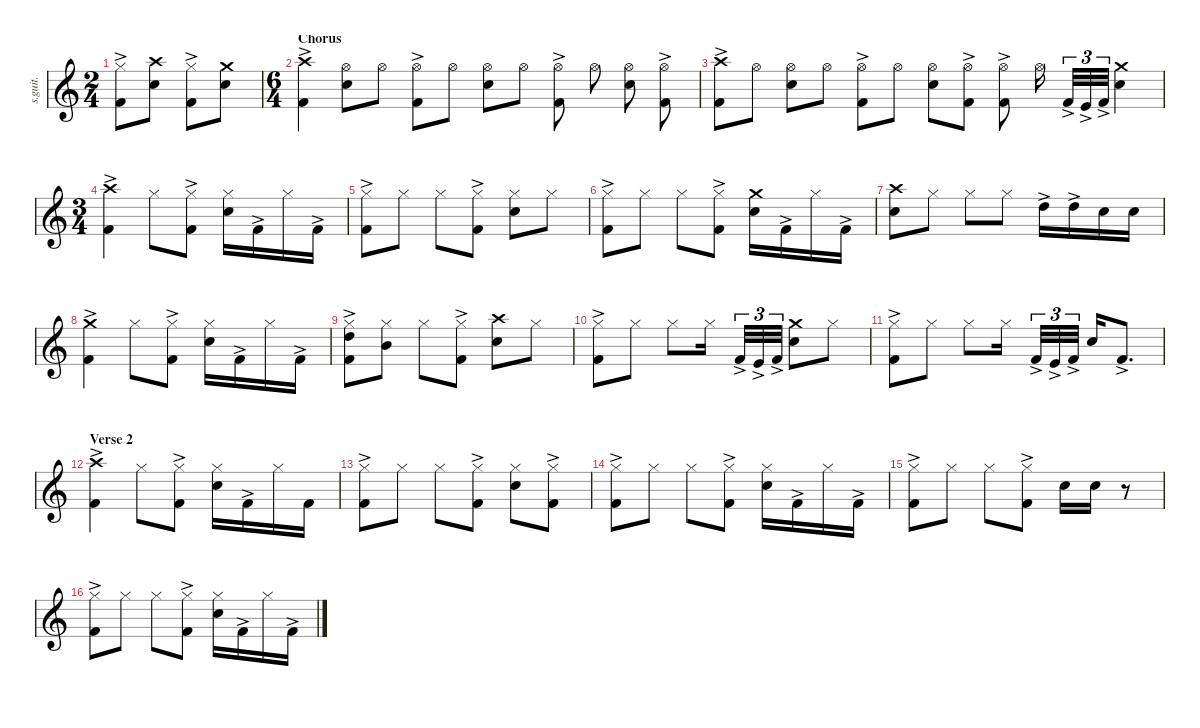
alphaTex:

\defaultSystemsLayout 4
\hideDynamics
\bracketExtendMode nobrackets
\track ("Lars Ulrich - Drums" "s.guit.") {instrument percussion}
\staff {score}
\articulation defaults
\ts (2 4)
\beaming (8 2 2 2 2)
\tempo (103 hide)
\clef g2
\ks c
("Hi-Hat (closed)" "Kick (hit) 2"{ac}).8{lyrics (0 "") lyrics (1 "") lyrics (2 "") lyrics (3 "") lyrics (4 "") dy f} ("Crash high (hit)" "Snare (hit) 2").8{lyrics (0 "") lyrics (1 "") lyrics (2 "") lyrics (3 "") lyrics (4 "")} ("Hi-Hat (closed)" "Kick (hit) 2"{ac}).8{lyrics (0 "") lyrics (1 "") lyrics (2 "") lyrics (3 "") lyrics (4 "")} ("Crash medium (hit)" "Snare (hit) 2").8{lyrics (0 "") lyrics (1 "") lyrics (2 "") lyrics (3 "") lyrics (4 "")} |
\ts (6 4)
\beaming (8 2 2 2 2)
\section ("" "Chorus")
("Kick (hit) 2"{ac} "Crash high (hit)").4{lyrics (0 "") lyrics (1 "") lyrics (2 "") lyrics (3 "") lyrics (4 "")} ("Hi-Hat (open)" "Snare (hit) 2").8{lyrics (0 "") lyrics (1 "") lyrics (2 "") lyrics (3 "") lyrics (4 "")} "Hi-Hat (open)".8{lyrics (0 "") lyrics (1 "") lyrics (2 "") lyrics (3 "") lyrics (4 "")} ("Hi-Hat (open)" "Kick (hit) 2"{ac}).8{lyrics (0 "") lyrics (1 "") lyrics (2 "") lyrics (3 "") lyrics (4 "")} "Hi-Hat (open)".8{lyrics (0 "") lyrics (1 "") lyrics (2 "") lyrics (3 "") lyrics (4 "")} ("Hi-Hat (open)" "Snare (hit) 2").8{lyrics (0 "") lyrics (1 "") lyrics (2 "") lyrics (3 "") lyrics (4 "")} "Hi-Hat (open)".8{lyrics (0 "") lyrics (1 "") lyrics (2 "") lyrics (3 "") lyrics (4 "")} ("Hi-Hat (open)" "Kick (hit) 2"{ac}).8{lyrics (0 "") lyrics (1 "") lyrics (2 "") lyrics (3 "") lyrics (4 "")} "Hi-Hat (open)".8{lyrics (0 "") lyrics (1 "") lyrics (2 "") lyrics (3 "") lyrics (4 "")} ("Hi-Hat (open)" "Snare (hit) 2").8{lyrics (0 "") lyrics (1 "") lyrics (2 "") lyrics (3 "") lyrics (4 "")} ("Hi-Hat (open)" "Kick (hit) 2"{ac}).8{lyrics (0 "") lyrics (1 "") lyrics (2 "") lyrics (3 "") lyrics (4 "")} |
("Crash high (hit)" "Kick (hit) 2"{ac}).8{lyrics (0 "") lyrics (1 "") lyrics (2 "") lyrics (3 "") lyrics (4 "")} "Hi-Hat (open)".8{lyrics (0 "") lyrics (1 "") lyrics (2 "") lyrics (3 "") lyrics (4 "")} ("Hi-Hat (open)" "Snare (hit) 2").8{lyrics (0 "") lyrics (1 "") lyrics (2 "") lyrics (3 "") lyrics (4 "")} "Hi-Hat (open)".8{lyrics (0 "") lyrics (1 "") lyrics (2 "") lyrics (3 "") lyrics (4 "")} ("Hi-Hat (open)" "Kick (hit) 2"{ac}).8{lyrics (0 "") lyrics (1 "") lyrics (2 "") lyrics (3 "") lyrics (4 "")} "Hi-Hat (open)".8{lyrics (0 "") lyrics (1 "") lyrics (2 "") lyrics (3 "") lyrics (4 "")} ("Hi-Hat (open)" "Snare (hit) 2").8{lyrics (0 "") lyrics (1 "") lyrics (2 "") lyrics (3 "") lyrics (4 "")} ("Hi-Hat (open)" "Kick (hit) 2"{ac}).8{lyrics (0 "") lyrics (1 "") lyrics (2 "") lyrics (3 "") lyrics (4 "")} ("Hi-Hat (open)" "Kick (hit) 2"{ac}).8{lyrics (0 "") lyrics (1 "") lyrics (2 "") lyrics (3 "") lyrics (4 "")} "Hi-Hat (open)".16{lyrics (0 "") lyrics (1 "") lyrics (2 "") lyrics (3 "") lyrics (4 "")} "Kick (hit) 2"{ac}.32{tu (3 2) lyrics (0 "") lyrics (1 "") lyrics (2 "") lyrics (3 "") lyrics (4 "") dy mp} "Kick (hit)"{ac}.32{tu (3 2) lyrics (0 "") lyrics (1 "") lyrics (2 "") lyrics (3 "") lyrics (4 "") dy mf} "Kick (hit) 2"{ac}.32{tu (3 2) lyrics (0 "") lyrics (1 "") lyrics (2 "") lyrics (3 "") lyrics (4 "") dy mp} ("Crash medium (hit)" "Snare (hit) 2").4{lyrics (0 "") lyrics (1 "") lyrics (2 "") lyrics (3 "") lyrics (4 "") dy f} |
\ts (3 4)
\beaming (8 2 2 2 2)
("Kick (hit) 2"{ac} "Crash high (hit)").4{lyrics (0 "") lyrics (1 "") lyrics (2 "") lyrics (3 "") lyrics (4 "")} "Hi-Hat (closed)".8{lyrics (0 "") lyrics (1 "") lyrics (2 "") lyrics (3 "") lyrics (4 "")} ("Hi-Hat (closed)" "Kick (hit) 2"{ac}).8{lyrics (0 "") lyrics (1 "") lyrics (2 "") lyrics (3 "") lyrics (4 "")} ("Hi-Hat (closed)" "Snare (hit) 2").16{lyrics (0 "") lyrics (1 "") lyrics (2 "") lyrics (3 "") lyrics (4 "")} "Kick (hit) 2"{ac}.16{lyrics (0 "") lyrics (1 "") lyrics (2 "") lyrics (3 "") lyrics (4 "") dy mp} "Hi-Hat (closed)".16{lyrics (0 "") lyrics (1 "") lyrics (2 "") lyrics (3 "") lyrics (4 "") dy f} "Kick (hit) 2"{ac}.16{lyrics (0 "") lyrics (1 "") lyrics (2 "") lyrics (3 "") lyrics (4 "") dy mp} |
("Hi-Hat (closed)" "Kick (hit) 2"{ac}).8{lyrics (0 "") lyrics (1 "") lyrics (2 "") lyrics (3 "") lyrics (4 "") dy f} "Hi-Hat (closed)".8{lyrics (0 "") lyrics (1 "") lyrics (2 "") lyrics (3 "") lyrics (4 "")} "Hi-Hat (closed)".8{lyrics (0 "") lyrics (1 "") lyrics (2 "") lyrics (3 "") lyrics (4 "")} ("Hi-Hat (closed)" "Kick (hit) 2"{ac}).8{lyrics (0 "") lyrics (1 "") lyrics (2 "") lyrics (3 "") lyrics (4 "")} ("Hi-Hat (closed)" "Snare (hit) 2").8{lyrics (0 "") lyrics (1 "") lyrics (2 "") lyrics (3 "") lyrics (4 "")} "Hi-Hat (closed)".8{lyrics (0 "") lyrics (1 "") lyrics (2 "") lyrics (3 "") lyrics (4 "")} |
("Hi-Hat (closed)" "Kick (hit) 2"{ac}).8{lyrics (0 "") lyrics (1 "") lyrics (2 "") lyrics (3 "") lyrics (4 "")} "Hi-Hat (closed)".8{lyrics (0 "") lyrics (1 "") lyrics (2 "") lyrics (3 "") lyrics (4 "")} "Hi-Hat (closed)".8{lyrics (0 "") lyrics (1 "") lyrics (2 "") lyrics (3 "") lyrics (4 "")} ("Hi-Hat (closed)" "Kick (hit) 2"{ac}).8{lyrics (0 "") lyrics (1 "") lyrics (2 "") lyrics (3 "") lyrics (4 "")} ("Snare (hit) 2" "Crash medium (hit)").16{lyrics (0 "") lyrics (1 "") lyrics (2 "") lyrics (3 "") lyrics (4 "")} "Kick (hit) 2"{ac}.16{lyrics (0 "") lyrics (1 "") lyrics (2 "") lyrics (3 "") lyrics (4 "") dy mp} "Hi-Hat (closed)".16{lyrics (0 "") lyrics (1 "") lyrics (2 "") lyrics (3 "") lyrics (4 "") dy f} "Kick (hit) 2"{ac}.16{lyrics (0 "") lyrics (1 "") lyrics (2 "") lyrics (3 "") lyrics (4 "") dy mp} |
("Snare (hit) 2" "Crash high (hit)").8{lyrics (0 "") lyrics (1 "") lyrics (2 "") lyrics (3 "") lyrics (4 "") dy f} "Hi-Hat (closed)".8{lyrics (0 "") lyrics (1 "") lyrics (2 "") lyrics (3 "") lyrics (4 "")} "Hi-Hat (closed)".8{lyrics (0 "") lyrics (1 "") lyrics (2 "") lyrics (3 "") lyrics (4 "")} "Hi-Hat (closed)".8{lyrics (0 "") lyrics (1 "") lyrics (2 "") lyrics (3 "") lyrics (4 "")} "High Tom (hit)"{ac}.16{lyrics (0 "") lyrics (1 "") lyrics (2 "") lyrics (3 "") lyrics (4 "") dy mp} "High Tom (hit)"{ac}.16{lyrics (0 "") lyrics (1 "") lyrics (2 "") lyrics (3 "") lyrics (4 "")} "Snare (hit) 2".16{lyrics (0 "") lyrics (1 "") lyrics (2 "") lyrics (3 "") lyrics (4 "") dy f} "Snare (hit) 2".16{lyrics (0 "") lyrics (1 "") lyrics (2 "") lyrics (3 "") lyrics (4 "")} |
("Kick (hit) 2"{ac} "Crash medium (hit)").4{lyrics (0 "") lyrics (1 "") lyrics (2 "") lyrics (3 "") lyrics (4 "")} "Hi-Hat (closed)".8{lyrics (0 "") lyrics (1 "") lyrics (2 "") lyrics (3 "") lyrics (4 "")} ("Hi-Hat (closed)" "Kick (hit) 2"{ac}).8{lyrics (0 "") lyrics (1 "") lyrics (2 "") lyrics (3 "") lyrics (4 "")} ("Hi-Hat (closed)" "Snare (hit) 2").16{lyrics (0 "") lyrics (1 "") lyrics (2 "") lyrics (3 "") lyrics (4 "")} "Kick (hit) 2"{ac}.16{lyrics (0 "") lyrics (1 "") lyrics (2 "") lyrics (3 "") lyrics (4 "") dy mp} "Hi-Hat (closed)".16{lyrics (0 "") lyrics (1 "") lyrics (2 "") lyrics (3 "") lyrics (4 "") dy f} "Kick (hit) 2"{ac}.16{lyrics (0 "") lyrics (1 "") lyrics (2 "") lyrics (3 "") lyrics (4 "") dy mp} |
("High Tom (hit)"{ac} "Hi-Hat (closed)" "Kick (hit) 2"{ac}).8{lyrics (0 "") lyrics (1 "") lyrics (2 "") lyrics (3 "") lyrics (4 "") dy f} ("Hi-Hat (closed)" "Mid Tom (hit)").8{lyrics (0 "") lyrics (1 "") lyrics (2 "") lyrics (3 "") lyrics (4 "")} "Hi-Hat (closed)".8{lyrics (0 "") lyrics (1 "") lyrics (2 "") lyrics (3 "") lyrics (4 "")} ("Hi-Hat (closed)" "Kick (hit) 2"{ac}).8{lyrics (0 "") lyrics (1 "") lyrics (2 "") lyrics (3 "") lyrics (4 "")} ("Crash high (hit)" "Snare (hit) 2").8{lyrics (0 "") lyrics (1 "") lyrics (2 "") lyrics (3 "") lyrics (4 "")} "Hi-Hat (closed)".8{lyrics (0 "") lyrics (1 "") lyrics (2 "") lyrics (3 "") lyrics (4 "")} |
("Hi-Hat (closed)" "Kick (hit) 2"{ac}).8{lyrics (0 "") lyrics (1 "") lyrics (2 "") lyrics (3 "") lyrics (4 "")} "Hi-Hat (closed)".8{lyrics (0 "") lyrics (1 "") lyrics (2 "") lyrics (3 "") lyrics (4 "")} "Hi-Hat (closed)".8{lyrics (0 "") lyrics (1 "") lyrics (2 "") lyrics (3 "") lyrics (4 "")} "Hi-Hat (closed)".16{lyrics (0 "") lyrics (1 "") lyrics (2 "") lyrics (3 "") lyrics (4 "")} "Kick (hit) 2"{ac}.32{tu (3 2) lyrics (0 "") lyrics (1 "") lyrics (2 "") lyrics (3 "") lyrics (4 "") dy mp} "Kick (hit)"{ac}.32{tu (3 2) lyrics (0 "") lyrics (1 "") lyrics (2 "") lyrics (3 "") lyrics (4 "") dy mf} "Kick (hit) 2"{ac}.32{tu (3 2) lyrics (0 "") lyrics (1 "") lyrics (2 "") lyrics (3 "") lyrics (4 "") dy mp} ("Crash medium (hit)" "Snare (hit) 2").8{lyrics (0 "") lyrics (1 "") lyrics (2 "") lyrics (3 "") lyrics (4 "") dy f} "Hi-Hat (closed)".8{lyrics (0 "") lyrics (1 "") lyrics (2 "") lyrics (3 "") lyrics (4 "")} |
("Hi-Hat (closed)" "Kick (hit) 2"{ac}).8{lyrics (0 "") lyrics (1 "") lyrics (2 "") lyrics (3 "") lyrics (4 "")} "Hi-Hat (closed)".8{lyrics (0 "") lyrics (1 "") lyrics (2 "") lyrics (3 "") lyrics (4 "")} "Hi-Hat (closed)".8{lyrics (0 "") lyrics (1 "") lyrics (2 "") lyrics (3 "") lyrics (4 "")} "Hi-Hat (closed)".16{lyrics (0 "") lyrics (1 "") lyrics (2 "") lyrics (3 "") lyrics (4 "")} "Kick (hit) 2"{ac}.32{tu (3 2) lyrics (0 "") lyrics (1 "") lyrics (2 "") lyrics (3 "") lyrics (4 "") dy mp} "Kick (hit)"{ac}.32{tu (3 2) lyrics (0 "") lyrics (1 "") lyrics (2 "") lyrics (3 "") lyrics (4 "") dy mf} "Kick (hit) 2"{ac}.32{tu (3 2) lyrics (0 "") lyrics (1 "") lyrics (2 "") lyrics (3 "") lyrics (4 "") dy mp} "Snare (hit) 2".16{lyrics (0 "") lyrics (1 "") lyrics (2 "") lyrics (3 "") lyrics (4 "") dy f} "Kick (hit) 2"{ac}.8{d lyrics (0 "") lyrics (1 "") lyrics (2 "") lyrics (3 "") lyrics (4 "") dy mp} |
\section ("" "Verse 2")
("Crash high (hit)" "Kick (hit) 2"{ac}).4{lyrics (0 "") lyrics (1 "") lyrics (2 "") lyrics (3 "") lyrics (4 "") dy f} "Hi-Hat (closed)".8{lyrics (0 "") lyrics (1 "") lyrics (2 "") lyrics (3 "") lyrics (4 "")} ("Hi-Hat (closed)" "Kick (hit) 2"{ac}).8{lyrics (0 "") lyrics (1 "") lyrics (2 "") lyrics (3 "") lyrics (4 "")} ("Hi-Hat (closed)" "Snare (hit) 2").16{lyrics (0 "") lyrics (1 "") lyrics (2 "") lyrics (3 "") lyrics (4 "")} "Kick (hit) 2"{ac}.16{lyrics (0 "") lyrics (1 "") lyrics (2 "") lyrics (3 "") lyrics (4 "") dy mp} "Hi-Hat (closed)".16{lyrics (0 "") lyrics (1 "") lyrics (2 "") lyrics (3 "") lyrics (4 "") dy f} "Kick (hit) 2".16{lyrics (0 "") lyrics (1 "") lyrics (2 "") lyrics (3 "") lyrics (4 "") dy ff} |
("Hi-Hat (closed)" "Kick (hit) 2"{ac}).8{lyrics (0 "") lyrics (1 "") lyrics (2 "") lyrics (3 "") lyrics (4 "") dy f} "Hi-Hat (closed)".8{lyrics (0 "") lyrics (1 "") lyrics (2 "") lyrics (3 "") lyrics (4 "")} "Hi-Hat (closed)".8{lyrics (0 "") lyrics (1 "") lyrics (2 "") lyrics (3 "") lyrics (4 "")} ("Hi-Hat (closed)" "Kick (hit) 2"{ac}).8{lyrics (0 "") lyrics (1 "") lyrics (2 "") lyrics (3 "") lyrics (4 "")} ("Hi-Hat (closed)" "Snare (hit) 2").8{lyrics (0 "") lyrics (1 "") lyrics (2 "") lyrics (3 "") lyrics (4 "")} ("Hi-Hat (closed)" "Kick (hit) 2"{ac}).8{lyrics (0 "") lyrics (1 "") lyrics (2 "") lyrics (3 "") lyrics (4 "")} |
("Hi-Hat (closed)" "Kick (hit) 2"{ac}).8{lyrics (0 "") lyrics (1 "") lyrics (2 "") lyrics (3 "") lyrics (4 "")} "Hi-Hat (closed)".8{lyrics (0 "") lyrics (1 "") lyrics (2 "") lyrics (3 "") lyrics (4 "")} "Hi-Hat (closed)".8{lyrics (0 "") lyrics (1 "") lyrics (2 "") lyrics (3 "") lyrics (4 "")} ("Hi-Hat (closed)" "Kick (hit) 2"{ac}).8{lyrics (0 "") lyrics (1 "") lyrics (2 "") lyrics (3 "") lyrics (4 "")} ("Hi-Hat (closed)" "Snare (hit) 2").16{lyrics (0 "") lyrics (1 "") lyrics (2 "") lyrics (3 "") lyrics (4 "")} "Kick (hit) 2"{ac}.16{lyrics (0 "") lyrics (1 "") lyrics (2 "") lyrics (3 "") lyrics (4 "") dy mp} "Hi-Hat (closed)".16{lyrics (0 "") lyrics (1 "") lyrics (2 "") lyrics (3 "") lyrics (4 "") dy f} "Kick (hit) 2"{ac}.16{lyrics (0 "") lyrics (1 "") lyrics (2 "") lyrics (3 "") lyrics (4 "") dy mp} |
("Hi-Hat (closed)" "Kick (hit) 2"{ac}).8{lyrics (0 "") lyrics (1 "") lyrics (2 "") lyrics (3 "") lyrics (4 "") dy f} "Hi-Hat (closed)".8{lyrics (0 "") lyrics (1 "") lyrics (2 "") lyrics (3 "") lyrics (4 "")} "Hi-Hat (closed)".8{lyrics (0 "") lyrics (1 "") lyrics (2 "") lyrics (3 "") lyrics (4 "")} ("Hi-Hat (closed)" "Kick (hit) 2"{ac}).8{lyrics (0 "") lyrics (1 "") lyrics (2 "") lyrics (3 "") lyrics (4 "")} "Snare (hit) 2".16{lyrics (0 "") lyrics (1 "") lyrics (2 "") lyrics (3 "") lyrics (4 "")} "Snare (hit) 2".16{lyrics (0 "") lyrics (1 "") lyrics (2 "") lyrics (3 "") lyrics (4 "")} r.8 |
("Hi-Hat (closed)" "Kick (hit) 2"{ac}).8{lyrics (0 "") lyrics (1 "") lyrics (2 "") lyrics (3 "") lyrics (4 "")} "Hi-Hat (closed)".8{lyrics (0 "") lyrics (1 "") lyrics (2 "") lyrics (3 "") lyrics (4 "")} "Hi-Hat (closed)".8{lyrics (0 "") lyrics (1 "") lyrics (2 "") lyrics (3 "") lyrics (4 "")} ("Hi-Hat (closed)" "Kick (hit) 2"{ac}).8{lyrics (0 "") lyrics (1 "") lyrics (2 "") lyrics (3 "") lyrics (4 "")} ("Hi-Hat (closed)" "Snare (hit) 2").16{lyrics (0 "") lyrics (1 "") lyrics (2 "") lyrics (3 "") lyrics (4 "")} "Kick (hit) 2"{ac}.16{lyrics (0 "") lyrics (1 "") lyrics (2 "") lyrics (3 "") lyrics (4 "") dy mp} "Hi-Hat (closed)".16{lyrics (0 "") lyrics (1 "") lyrics (2 "") lyrics (3 "") lyrics (4 "") dy f} "Kick (hit) 2"{ac}.16{lyrics (0 "") lyrics (1 "") lyrics (2 "") lyrics (3 "") lyrics (4 "") dy mp}
